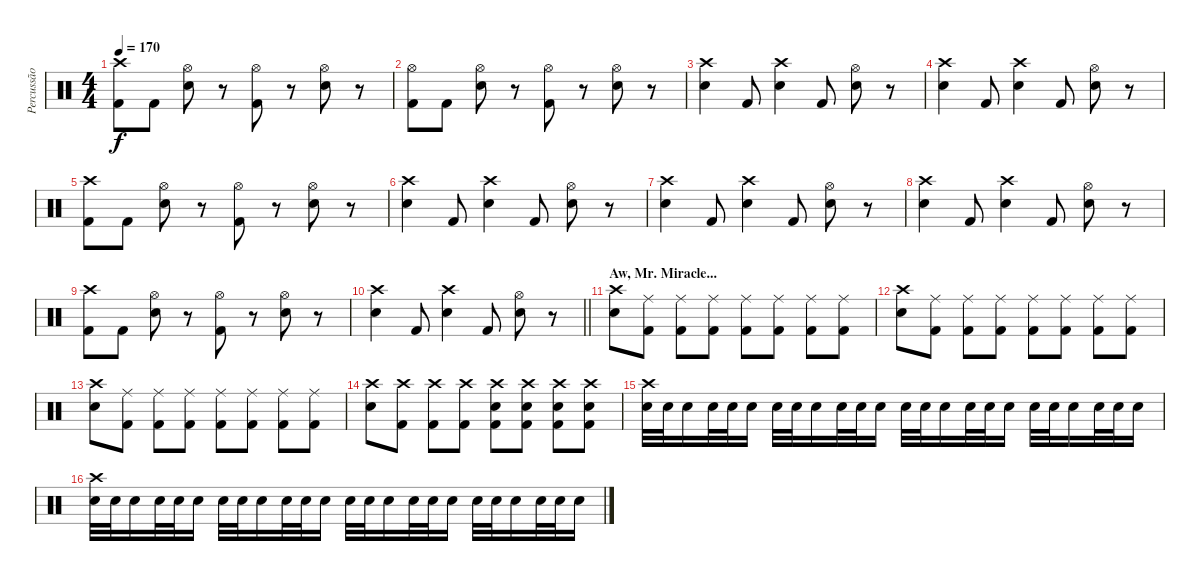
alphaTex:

\track ("Percussão" "Percussão") {instrument percussion}
\staff {score}
\articulation defaults
\ts (4 4)
\tempo 170
\clef neutral
\ks c
("Crash high (hit)" "Kick (hit) 2").8{dy f} "Kick (hit) 2".8 ("Hi-Hat (open)" "Snare (hit) 2").8 r.8 ("Hi-Hat (open)" "Kick (hit) 2").8 r.8 ("Hi-Hat (open)" "Snare (hit) 2").8 r.8 |
("Hi-Hat (open)" "Kick (hit) 2").8 "Kick (hit) 2".8 ("Hi-Hat (open)" "Snare (hit) 2").8 r.8 ("Hi-Hat (open)" "Kick (hit) 2").8 r.8 ("Hi-Hat (open)" "Snare (hit) 2").8 r.8 |
("Crash high (hit)" "Snare (hit) 2").4 "Kick (hit) 2".8 ("Crash high (hit)" "Snare (hit) 2").4 "Kick (hit) 2".8 ("Hi-Hat (open)" "Snare (hit) 2").8 r.8 |
("Crash high (hit)" "Snare (hit) 2").4 "Kick (hit) 2".8 ("Crash high (hit)" "Snare (hit) 2").4 "Kick (hit) 2".8 ("Hi-Hat (open)" "Snare (hit) 2").8 r.8 |
("Crash high (hit)" "Kick (hit) 2").8 "Kick (hit) 2".8 ("Hi-Hat (open)" "Snare (hit) 2").8 r.8 ("Hi-Hat (open)" "Kick (hit) 2").8 r.8 ("Hi-Hat (open)" "Snare (hit) 2").8 r.8 |
("Crash high (hit)" "Snare (hit) 2").4 "Kick (hit) 2".8 ("Crash high (hit)" "Snare (hit) 2").4 "Kick (hit) 2".8 ("Hi-Hat (open)" "Snare (hit) 2").8 r.8 |
("Crash high (hit)" "Snare (hit) 2").4 "Kick (hit) 2".8 ("Crash high (hit)" "Snare (hit) 2").4 "Kick (hit) 2".8 ("Hi-Hat (open)" "Snare (hit) 2").8 r.8 |
("Crash high (hit)" "Snare (hit) 2").4 "Kick (hit) 2".8 ("Crash high (hit)" "Snare (hit) 2").4 "Kick (hit) 2".8 ("Hi-Hat (open)" "Snare (hit) 2").8 r.8 |
("Crash high (hit)" "Kick (hit) 2").8 "Kick (hit) 2".8 ("Hi-Hat (open)" "Snare (hit) 2").8 r.8 ("Hi-Hat (open)" "Kick (hit) 2").8 r.8 ("Hi-Hat (open)" "Snare (hit) 2").8 r.8 |
\barLineRight lightlight
("Crash high (hit)" "Snare (hit) 2").4 "Kick (hit) 2".8 ("Crash high (hit)" "Snare (hit) 2").4 "Kick (hit) 2".8 ("Hi-Hat (open)" "Snare (hit) 2").8 r.8 |
\section ("" "Aw, Mr. Miracle...")
("Crash high (hit)" "Snare (hit) 2").8 ("Ride (middle)" "Kick (hit) 2").8 ("Ride (middle)" "Kick (hit) 2").8 ("Ride (middle)" "Kick (hit) 2").8 ("Ride (middle)" "Kick (hit) 2").8 ("Ride (middle)" "Kick (hit) 2").8 ("Ride (middle)" "Kick (hit) 2").8 ("Ride (middle)" "Kick (hit) 2").8 |
("Crash high (hit)" "Snare (hit) 2").8 ("Ride (middle)" "Kick (hit) 2").8 ("Ride (middle)" "Kick (hit) 2").8 ("Ride (middle)" "Kick (hit) 2").8 ("Ride (middle)" "Kick (hit) 2").8 ("Ride (middle)" "Kick (hit) 2").8 ("Ride (middle)" "Kick (hit) 2").8 ("Ride (middle)" "Kick (hit) 2").8 |
("Crash high (hit)" "Snare (hit) 2").8 ("Ride (middle)" "Kick (hit) 2").8 ("Ride (middle)" "Kick (hit) 2").8 ("Ride (middle)" "Kick (hit) 2").8 ("Ride (middle)" "Kick (hit) 2").8 ("Ride (middle)" "Kick (hit) 2").8 ("Ride (middle)" "Kick (hit) 2").8 ("Ride (middle)" "Kick (hit) 2").8 |
("Crash high (hit)" "Snare (hit) 2").8 ("Crash high (hit)" "Kick (hit) 2").8 ("Crash high (hit)" "Kick (hit) 2").8 ("Crash high (hit)" "Kick (hit) 2").8 ("Crash high (hit)" "Snare (hit) 2" "Kick (hit) 2").8 ("Crash high (hit)" "Snare (hit) 2" "Kick (hit) 2").8 ("Crash high (hit)" "Snare (hit) 2" "Kick (hit) 2").8 ("Crash high (hit)" "Snare (hit) 2" "Kick (hit) 2").8 |
("Crash high (hit)" "Snare (hit) 2").32 "Snare (hit) 2".32 "Snare (hit) 2".16 "Snare (hit) 2".32 "Snare (hit) 2".32 "Snare (hit) 2".16 "Snare (hit) 2".32 "Snare (hit) 2".32 "Snare (hit) 2".16 "Snare (hit) 2".32 "Snare (hit) 2".32 "Snare (hit) 2".16 "Snare (hit) 2".32 "Snare (hit) 2".32 "Snare (hit) 2".16 "Snare (hit) 2".32 "Snare (hit) 2".32 "Snare (hit) 2".16 "Snare (hit) 2".32 "Snare (hit) 2".32 "Snare (hit) 2".16 "Snare (hit) 2".32 "Snare (hit) 2".32 "Snare (hit) 2".16 |
("Crash high (hit)" "Snare (hit) 2").32 "Snare (hit) 2".32 "Snare (hit) 2".16 "Snare (hit) 2".32 "Snare (hit) 2".32 "Snare (hit) 2".16 "Snare (hit) 2".32 "Snare (hit) 2".32 "Snare (hit) 2".16 "Snare (hit) 2".32 "Snare (hit) 2".32 "Snare (hit) 2".16 "Snare (hit) 2".32 "Snare (hit) 2".32 "Snare (hit) 2".16 "Snare (hit) 2".32 "Snare (hit) 2".32 "Snare (hit) 2".16 "Snare (hit) 2".32 "Snare (hit) 2".32 "Snare (hit) 2".16 "Snare (hit) 2".32 "Snare (hit) 2".32 "Snare (hit) 2".16
